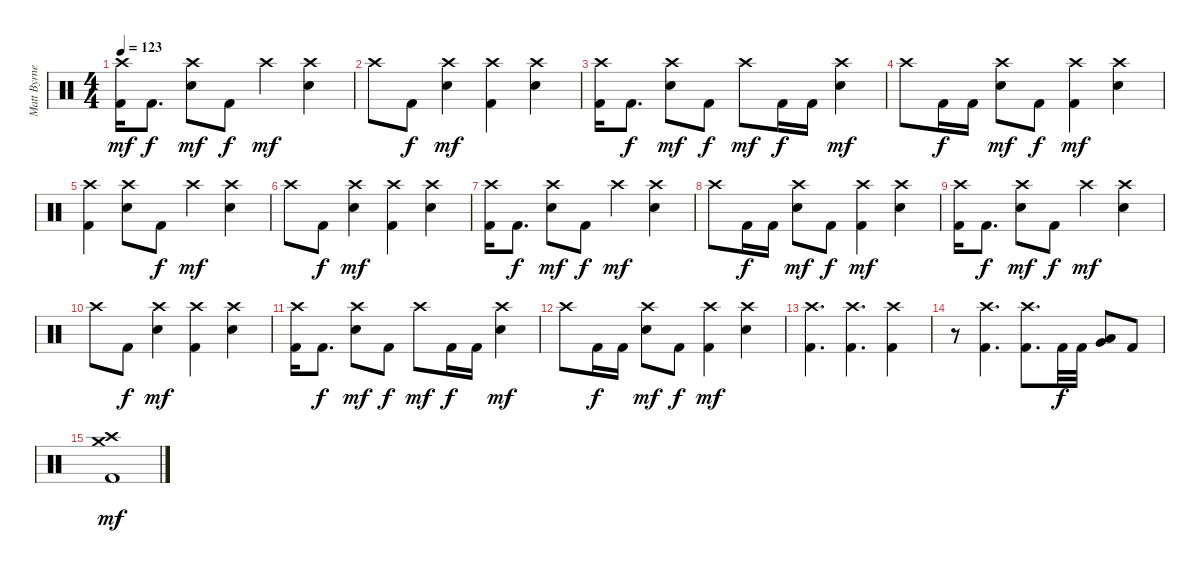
\track ("Matt Byrne" "Matt Byrne") {instrument percussion}
\staff {score}
\articulation defaults
\ts (4 4)
\tempo 123
\clef neutral
\ks c
("Crash high (hit)" "Kick (hit) 2").16{dy mf} "Kick (hit) 2".8{d dy f} ("Crash high (hit)" "Electric Snare (hit)").8{dy mf} "Kick (hit) 2".8{dy f} "Crash high (hit)".4{dy mf} ("Crash high (hit)" "Electric Snare (hit)").4 |
"Crash high (hit)".8 "Kick (hit) 2".8{dy f} ("Crash high (hit)" "Electric Snare (hit)").4{dy mf} ("Crash high (hit)" "Kick (hit) 2").4 ("Crash high (hit)" "Electric Snare (hit)").4 |
("Crash high (hit)" "Kick (hit) 2").16 "Kick (hit) 2".8{d dy f} ("Crash high (hit)" "Electric Snare (hit)").8{dy mf} "Kick (hit) 2".8{dy f} "Crash high (hit)".8{dy mf} "Kick (hit) 2".16{dy f} "Kick (hit) 2".16 ("Crash high (hit)" "Electric Snare (hit)").4{dy mf} |
"Crash high (hit)".8 "Kick (hit) 2".16{dy f} "Kick (hit) 2".16 ("Crash high (hit)" "Electric Snare (hit)").8{dy mf} "Kick (hit) 2".8{dy f} ("Crash high (hit)" "Kick (hit) 2").4{dy mf} ("Crash high (hit)" "Electric Snare (hit)").4 |
("Crash high (hit)" "Kick (hit) 2").4 ("Crash high (hit)" "Electric Snare (hit)").8 "Kick (hit) 2".8{dy f} "Crash high (hit)".4{dy mf} ("Crash high (hit)" "Electric Snare (hit)").4 |
"Crash high (hit)".8 "Kick (hit) 2".8{dy f} ("Crash high (hit)" "Electric Snare (hit)").4{dy mf} ("Crash high (hit)" "Kick (hit) 2").4 ("Crash high (hit)" "Electric Snare (hit)").4 |
("Crash high (hit)" "Kick (hit) 2").16 "Kick (hit) 2".8{d dy f} ("Crash high (hit)" "Electric Snare (hit)").8{dy mf} "Kick (hit) 2".8{dy f} "Crash high (hit)".4{dy mf} ("Crash high (hit)" "Electric Snare (hit)").4 |
"Crash high (hit)".8 "Kick (hit) 2".16{dy f} "Kick (hit) 2".16 ("Crash high (hit)" "Electric Snare (hit)").8{dy mf} "Kick (hit) 2".8{dy f} ("Crash high (hit)" "Kick (hit) 2").4{dy mf} ("Crash high (hit)" "Electric Snare (hit)").4 |
("Crash high (hit)" "Kick (hit) 2").16 "Kick (hit) 2".8{d dy f} ("Crash high (hit)" "Electric Snare (hit)").8{dy mf} "Kick (hit) 2".8{dy f} "Crash high (hit)".4{dy mf} ("Crash high (hit)" "Electric Snare (hit)").4 |
"Crash high (hit)".8 "Kick (hit) 2".8{dy f} ("Crash high (hit)" "Electric Snare (hit)").4{dy mf} ("Crash high (hit)" "Kick (hit) 2").4 ("Crash high (hit)" "Electric Snare (hit)").4 |
("Crash high (hit)" "Kick (hit) 2").16 "Kick (hit) 2".8{d dy f} ("Crash high (hit)" "Electric Snare (hit)").8{dy mf} "Kick (hit) 2".8{dy f} "Crash high (hit)".8{dy mf} "Kick (hit) 2".16{dy f} "Kick (hit) 2".16 ("Crash high (hit)" "Electric Snare (hit)").4{dy mf} |
"Crash high (hit)".8 "Kick (hit) 2".16{dy f} "Kick (hit) 2".16 ("Crash high (hit)" "Electric Snare (hit)").8{dy mf} "Kick (hit) 2".8{dy f} ("Crash high (hit)" "Kick (hit) 2").4{dy mf} ("Crash high (hit)" "Electric Snare (hit)").4 |
("Crash high (hit)" "Kick (hit) 2").4{d} ("Crash high (hit)" "Kick (hit) 2").4{d} ("Crash high (hit)" "Kick (hit) 2").4 |
r.8 ("Crash high (hit)" "Kick (hit) 2").4{d} ("Crash high (hit)" "Kick (hit) 2").8{d} "Kick (hit) 2".32{dy f} "Kick (hit) 2".32 ("Very Low Tom (hit)" "Low Floor Tom (hit)").8 "Kick (hit) 2".8 |
("Crash high (hit)" "Crash medium (hit)" "Kick (hit) 2").1{dy mf}
